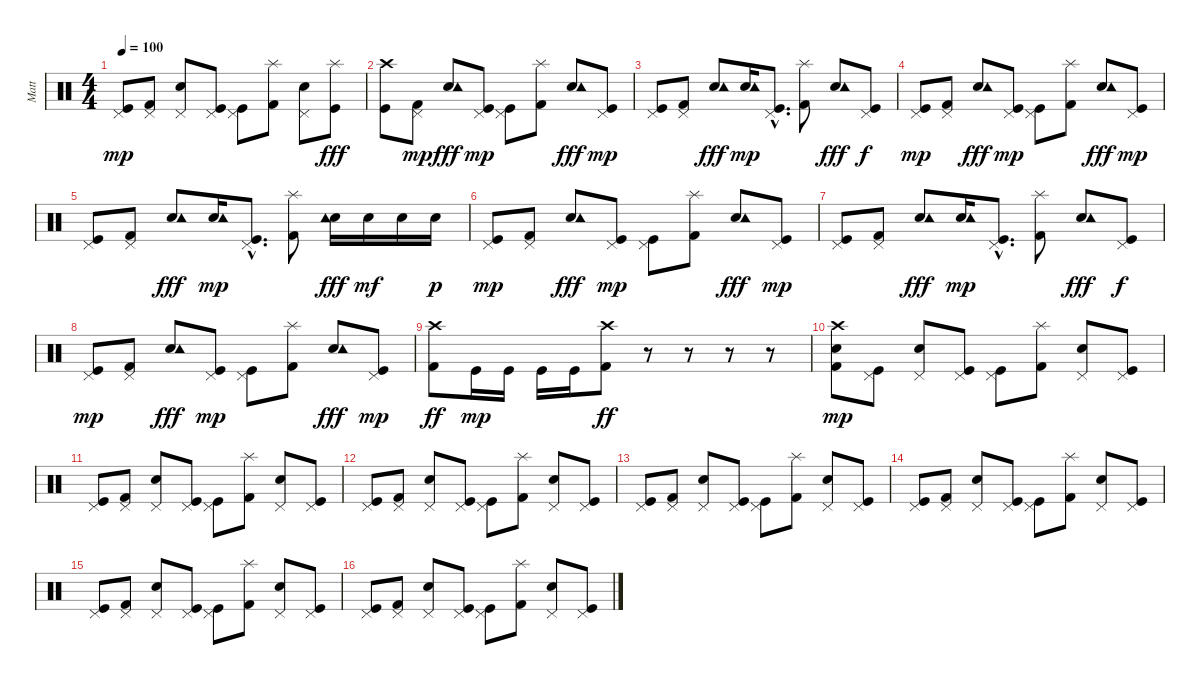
\track ("Matt" "Matt") {instrument percussion}
\staff {score}
\articulation defaults
\ts (4 4)
\tempo 100
\clef neutral
\ks c
("Kick (hit)" "Pedal Hi-Hat (hit)").8{dy mp} ("Kick (hit) 2" "Pedal Hi-Hat (hit)").8 ("Electric Snare (hit)" "Pedal Hi-Hat (hit)").8 ("Kick (hit)" "Pedal Hi-Hat (hit)").8 ("Kick (hit)" "Pedal Hi-Hat (hit)").8 ("Kick (hit) 2" "Splash (hit)").8 ("Electric Snare (hit)" "Pedal Hi-Hat (hit)").8 ("Kick (hit)" "Splash (hit)").8{dy fff} |
("Kick (hit)" "Crash high (hit)").8 ("Kick (hit) 2" "Pedal Hi-Hat (hit)").8{dy mp} ("Electric Snare (hit)" "Tambourine (hit)").8{dy fff} ("Kick (hit)" "Pedal Hi-Hat (hit)").8{dy mp} ("Kick (hit)" "Pedal Hi-Hat (hit)").8 ("Kick (hit) 2" "Splash (hit)").8 ("Electric Snare (hit)" "Tambourine (hit)").8{dy fff} ("Kick (hit)" "Pedal Hi-Hat (hit)").8{dy mp} |
("Kick (hit)" "Pedal Hi-Hat (hit)").8 ("Kick (hit) 2" "Pedal Hi-Hat (hit)").8 ("Electric Snare (hit)" "Tambourine (hit)").8{dy fff} ("Electric Snare (hit)" "Tambourine (hit)").16{dy mp} ("Kick (hit)"{hac} "Pedal Hi-Hat (hit)"{hac}).8{d} ("Kick (hit) 2" "Splash (hit)").8 ("Electric Snare (hit)" "Tambourine (hit)").8{dy fff} ("Kick (hit)" "Pedal Hi-Hat (hit)").8{dy f} |
("Kick (hit)" "Pedal Hi-Hat (hit)").8{dy mp} ("Kick (hit) 2" "Pedal Hi-Hat (hit)").8 ("Electric Snare (hit)" "Tambourine (hit)").8{dy fff} ("Kick (hit)" "Pedal Hi-Hat (hit)").8{dy mp} ("Kick (hit)" "Pedal Hi-Hat (hit)").8 ("Kick (hit) 2" "Splash (hit)").8 ("Electric Snare (hit)" "Tambourine (hit)").8{dy fff} ("Kick (hit)" "Pedal Hi-Hat (hit)").8{dy mp} |
("Kick (hit)" "Pedal Hi-Hat (hit)").8 ("Kick (hit) 2" "Pedal Hi-Hat (hit)").8 ("Electric Snare (hit)" "Tambourine (hit)").8{dy fff} ("Electric Snare (hit)" "Tambourine (hit)").16{dy mp} ("Kick (hit)"{hac} "Pedal Hi-Hat (hit)"{hac}).8{d} ("Kick (hit) 2" "Splash (hit)").8 ("Electric Snare (hit)" "Tambourine (hit)").16{dy fff} "Electric Snare (hit)".16{dy mf} "Electric Snare (hit)".16 "Electric Snare (hit)".16{dy p} |
("Kick (hit)" "Pedal Hi-Hat (hit)").8{dy mp} ("Kick (hit) 2" "Pedal Hi-Hat (hit)").8 ("Electric Snare (hit)" "Tambourine (hit)").8{dy fff} ("Kick (hit)" "Pedal Hi-Hat (hit)").8{dy mp} ("Kick (hit)" "Pedal Hi-Hat (hit)").8 ("Kick (hit) 2" "Splash (hit)").8 ("Electric Snare (hit)" "Tambourine (hit)").8{dy fff} ("Kick (hit)" "Pedal Hi-Hat (hit)").8{dy mp} |
("Kick (hit)" "Pedal Hi-Hat (hit)").8 ("Kick (hit) 2" "Pedal Hi-Hat (hit)").8 ("Electric Snare (hit)" "Tambourine (hit)").8{dy fff} ("Electric Snare (hit)" "Tambourine (hit)").16{dy mp} ("Kick (hit)"{hac} "Pedal Hi-Hat (hit)"{hac}).8{d} ("Kick (hit) 2" "Splash (hit)").8 ("Electric Snare (hit)" "Tambourine (hit)").8{dy fff} ("Kick (hit)" "Pedal Hi-Hat (hit)").8{dy f} |
("Kick (hit)" "Pedal Hi-Hat (hit)").8{dy mp} ("Kick (hit) 2" "Pedal Hi-Hat (hit)").8 ("Electric Snare (hit)" "Tambourine (hit)").8{dy fff} ("Kick (hit)" "Pedal Hi-Hat (hit)").8{dy mp} ("Kick (hit)" "Pedal Hi-Hat (hit)").8 ("Kick (hit) 2" "Splash (hit)").8 ("Electric Snare (hit)" "Tambourine (hit)").8{dy fff} ("Kick (hit)" "Pedal Hi-Hat (hit)").8{dy mp} |
("Kick (hit) 2" "Crash high (hit)").8{dy ff} "Kick (hit)".16{dy mp} "Kick (hit)".16 "Kick (hit)".16 "Kick (hit)".16 ("Kick (hit) 2" "Crash high (hit)").8{dy ff} r.8 r.8 r.8 r.8 |
("Electric Snare (hit)" "Kick (hit) 2" "Crash high (hit)").8{dy mp} ("Kick (hit)" "Pedal Hi-Hat (hit)").8 ("Electric Snare (hit)" "Pedal Hi-Hat (hit)").8 ("Kick (hit)" "Pedal Hi-Hat (hit)").8 ("Kick (hit)" "Pedal Hi-Hat (hit)").8 ("Kick (hit) 2" "Splash (hit)").8 ("Electric Snare (hit)" "Pedal Hi-Hat (hit)").8 ("Kick (hit)" "Pedal Hi-Hat (hit)").8 |
("Kick (hit)" "Pedal Hi-Hat (hit)").8 ("Kick (hit) 2" "Pedal Hi-Hat (hit)").8 ("Electric Snare (hit)" "Pedal Hi-Hat (hit)").8 ("Kick (hit)" "Pedal Hi-Hat (hit)").8 ("Kick (hit)" "Pedal Hi-Hat (hit)").8 ("Kick (hit) 2" "Splash (hit)").8 ("Electric Snare (hit)" "Pedal Hi-Hat (hit)").8 ("Kick (hit)" "Pedal Hi-Hat (hit)").8 |
("Kick (hit)" "Pedal Hi-Hat (hit)").8 ("Kick (hit) 2" "Pedal Hi-Hat (hit)").8 ("Electric Snare (hit)" "Pedal Hi-Hat (hit)").8 ("Kick (hit)" "Pedal Hi-Hat (hit)").8 ("Kick (hit)" "Pedal Hi-Hat (hit)").8 ("Kick (hit) 2" "Splash (hit)").8 ("Electric Snare (hit)" "Pedal Hi-Hat (hit)").8 ("Kick (hit)" "Pedal Hi-Hat (hit)").8 |
("Kick (hit)" "Pedal Hi-Hat (hit)").8 ("Kick (hit) 2" "Pedal Hi-Hat (hit)").8 ("Electric Snare (hit)" "Pedal Hi-Hat (hit)").8 ("Kick (hit)" "Pedal Hi-Hat (hit)").8 ("Kick (hit)" "Pedal Hi-Hat (hit)").8 ("Kick (hit) 2" "Splash (hit)").8 ("Electric Snare (hit)" "Pedal Hi-Hat (hit)").8 ("Kick (hit)" "Pedal Hi-Hat (hit)").8 |
("Kick (hit)" "Pedal Hi-Hat (hit)").8 ("Kick (hit) 2" "Pedal Hi-Hat (hit)").8 ("Electric Snare (hit)" "Pedal Hi-Hat (hit)").8 ("Kick (hit)" "Pedal Hi-Hat (hit)").8 ("Kick (hit)" "Pedal Hi-Hat (hit)").8 ("Kick (hit) 2" "Splash (hit)").8 ("Electric Snare (hit)" "Pedal Hi-Hat (hit)").8 ("Kick (hit)" "Pedal Hi-Hat (hit)").8 |
("Kick (hit)" "Pedal Hi-Hat (hit)").8 ("Kick (hit) 2" "Pedal Hi-Hat (hit)").8 ("Electric Snare (hit)" "Pedal Hi-Hat (hit)").8 ("Kick (hit)" "Pedal Hi-Hat (hit)").8 ("Kick (hit)" "Pedal Hi-Hat (hit)").8 ("Kick (hit) 2" "Splash (hit)").8 ("Electric Snare (hit)" "Pedal Hi-Hat (hit)").8 ("Kick (hit)" "Pedal Hi-Hat (hit)").8 |
("Kick (hit)" "Pedal Hi-Hat (hit)").8 ("Kick (hit) 2" "Pedal Hi-Hat (hit)").8 ("Electric Snare (hit)" "Pedal Hi-Hat (hit)").8 ("Kick (hit)" "Pedal Hi-Hat (hit)").8 ("Kick (hit)" "Pedal Hi-Hat (hit)").8 ("Kick (hit) 2" "Splash (hit)").8 ("Electric Snare (hit)" "Pedal Hi-Hat (hit)").8 ("Kick (hit)" "Pedal Hi-Hat (hit)").8
